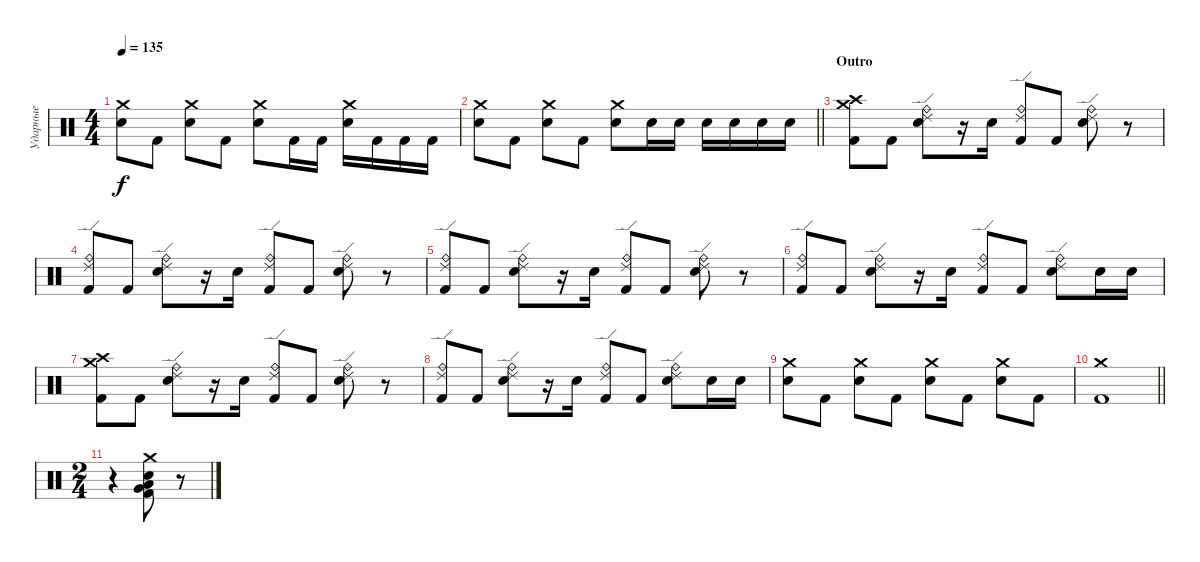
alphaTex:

\track ("Ударные" "Ударные") {instrument percussion}
\staff {score}
\articulation defaults
\ts (4 4)
\tempo 135
\clef neutral
\ks c
("Crash medium (hit)" "Electric Snare (hit)").8{dy f} "Kick (hit) 2".8 ("Crash medium (hit)" "Electric Snare (hit)").8 "Kick (hit) 2".8 ("Crash medium (hit)" "Electric Snare (hit)").8 "Kick (hit) 2".16 "Kick (hit) 2".16 ("Crash medium (hit)" "Electric Snare (hit)").16 "Kick (hit) 2".16 "Kick (hit) 2".16 "Kick (hit) 2".16 |
\barLineRight lightlight
("Crash medium (hit)" "Electric Snare (hit)").8 "Kick (hit) 2".8 ("Crash medium (hit)" "Electric Snare (hit)").8 "Kick (hit) 2".8 ("Crash medium (hit)" "Electric Snare (hit)").8 "Electric Snare (hit)".16 "Electric Snare (hit)".16 "Electric Snare (hit)".16 "Electric Snare (hit)".16 "Electric Snare (hit)".16 "Electric Snare (hit)".16 |
\section ("" "Outro")
("Crash medium (hit)" "Crash high (hit)" "Kick (hit) 2").8 "Kick (hit) 2".8 ("Ride (bell)" "Ride (edge) 2" "Electric Snare (hit)").8 r.16 "Electric Snare (hit)".16 ("Ride (bell)" "Ride (edge) 2" "Kick (hit) 2").8 "Kick (hit) 2".8 ("Ride (bell)" "Ride (edge) 2" "Electric Snare (hit)").8 r.8 |
("Ride (bell)" "Ride (edge) 2" "Kick (hit) 2").8 "Kick (hit) 2".8 ("Ride (bell)" "Ride (edge) 2" "Electric Snare (hit)").8 r.16 "Electric Snare (hit)".16 ("Ride (bell)" "Ride (edge) 2" "Kick (hit) 2").8 "Kick (hit) 2".8 ("Ride (bell)" "Ride (edge) 2" "Electric Snare (hit)").8 r.8 |
("Ride (bell)" "Ride (edge) 2" "Kick (hit) 2").8 "Kick (hit) 2".8 ("Ride (bell)" "Ride (edge) 2" "Electric Snare (hit)").8 r.16 "Electric Snare (hit)".16 ("Ride (bell)" "Ride (edge) 2" "Kick (hit) 2").8 "Kick (hit) 2".8 ("Ride (bell)" "Ride (edge) 2" "Electric Snare (hit)").8 r.8 |
("Ride (bell)" "Ride (edge) 2" "Kick (hit) 2").8 "Kick (hit) 2".8 ("Ride (bell)" "Ride (edge) 2" "Electric Snare (hit)").8 r.16 "Electric Snare (hit)".16 ("Ride (bell)" "Ride (edge) 2" "Kick (hit) 2").8 "Kick (hit) 2".8 ("Ride (bell)" "Ride (edge) 2" "Electric Snare (hit)").8 "Electric Snare (hit)".16 "Electric Snare (hit)".16 |
("Crash medium (hit)" "Crash high (hit)" "Kick (hit) 2").8 "Kick (hit) 2".8 ("Ride (bell)" "Ride (edge) 2" "Electric Snare (hit)").8 r.16 "Electric Snare (hit)".16 ("Ride (bell)" "Ride (edge) 2" "Kick (hit) 2").8 "Kick (hit) 2".8 ("Ride (bell)" "Ride (edge) 2" "Electric Snare (hit)").8 r.8 |
("Ride (bell)" "Ride (edge) 2" "Kick (hit) 2").8 "Kick (hit) 2".8 ("Ride (bell)" "Ride (edge) 2" "Electric Snare (hit)").8 r.16 "Electric Snare (hit)".16 ("Ride (bell)" "Ride (edge) 2" "Kick (hit) 2").8 "Kick (hit) 2".8 ("Ride (bell)" "Ride (edge) 2" "Electric Snare (hit)").8 "Electric Snare (hit)".16 "Electric Snare (hit)".16 |
("Crash medium (hit)" "Electric Snare (hit)").8 "Kick (hit) 2".8 ("Crash medium (hit)" "Electric Snare (hit)").8 "Kick (hit) 2".8 ("Crash medium (hit)" "Electric Snare (hit)").8 "Kick (hit) 2".8 ("Crash medium (hit)" "Electric Snare (hit)").8 "Kick (hit) 2".8 |
\barLineRight lightlight
("Crash medium (hit)" "Kick (hit) 2").1 |
\ts (2 4)
r.4 ("Crash medium (hit)" "Electric Snare (hit)" "Low Floor Tom (hit)" "Very Low Tom (hit)" "Kick (hit) 2").8 r.8
